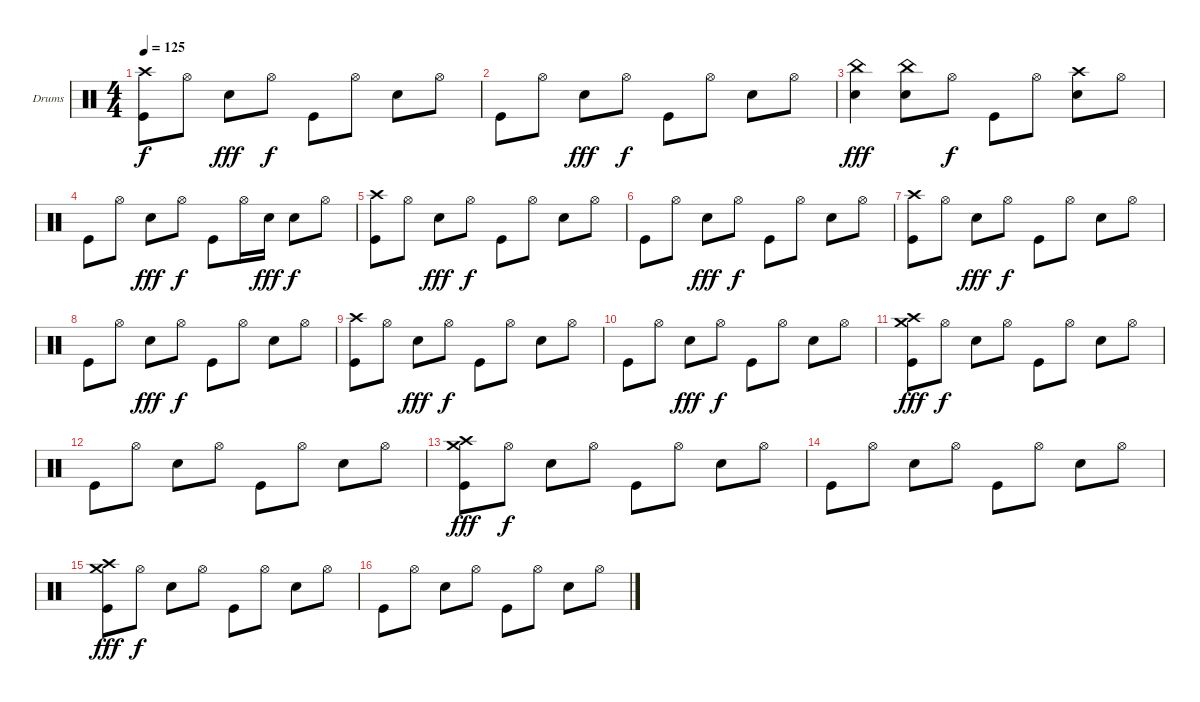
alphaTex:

\bracketExtendMode groupsimilarinstruments
\firstSystemTrackNameOrientation horizontal
\otherSystemsTrackNameOrientation horizontal
\track ("Drumkit" "Drums") {instrument percussion}
\staff {score}
\articulation defaults
\ts (4 4)
\tempo 125
\clef neutral
\ks c
("Crash high (hit)" "Kick (hit)").8{dy f} "Hi-Hat (open)".8 "Snare (hit) 2".8{dy fff} "Hi-Hat (open)".8{dy f} "Kick (hit)".8 "Hi-Hat (open)".8 "Snare (hit) 2".8 "Hi-Hat (open)".8 |
"Kick (hit)".8 "Hi-Hat (open)".8 "Snare (hit) 2".8{dy fff} "Hi-Hat (open)".8{dy f} "Kick (hit)".8 "Hi-Hat (open)".8 "Snare (hit) 2".8 "Hi-Hat (open)".8 |
("China (hit)" "Snare (hit) 2").4{dy fff} ("China (hit)" "Snare (hit) 2").8 "Hi-Hat (open)".8{dy f} "Kick (hit)".8 "Hi-Hat (open)".8 ("Crash high (hit)" "Snare (hit) 2").8 "Hi-Hat (open)".8 |
"Kick (hit)".8 "Hi-Hat (open)".8 "Snare (hit) 2".8{dy fff} "Hi-Hat (open)".8{dy f} "Kick (hit)".8 "Hi-Hat (open)".16 "Snare (hit) 2".16{dy fff} "Snare (hit) 2".8{dy f} "Hi-Hat (open)".8 |
("Crash high (hit)" "Kick (hit)").8 "Hi-Hat (open)".8 "Snare (hit) 2".8{dy fff} "Hi-Hat (open)".8{dy f} "Kick (hit)".8 "Hi-Hat (open)".8 "Snare (hit) 2".8 "Hi-Hat (open)".8 |
"Kick (hit)".8 "Hi-Hat (open)".8 "Snare (hit) 2".8{dy fff} "Hi-Hat (open)".8{dy f} "Kick (hit)".8 "Hi-Hat (open)".8 "Snare (hit) 2".8 "Hi-Hat (open)".8 |
("Crash high (hit)" "Kick (hit)").8 "Hi-Hat (open)".8 "Snare (hit) 2".8{dy fff} "Hi-Hat (open)".8{dy f} "Kick (hit)".8 "Hi-Hat (open)".8 "Snare (hit) 2".8 "Hi-Hat (open)".8 |
"Kick (hit)".8 "Hi-Hat (open)".8 "Snare (hit) 2".8{dy fff} "Hi-Hat (open)".8{dy f} "Kick (hit)".8 "Hi-Hat (open)".8 "Snare (hit) 2".8 "Hi-Hat (open)".8 |
("Crash high (hit)" "Kick (hit)").8 "Hi-Hat (open)".8 "Snare (hit) 2".8{dy fff} "Hi-Hat (open)".8{dy f} "Kick (hit)".8 "Hi-Hat (open)".8 "Snare (hit) 2".8 "Hi-Hat (open)".8 |
"Kick (hit)".8 "Hi-Hat (open)".8 "Snare (hit) 2".8{dy fff} "Hi-Hat (open)".8{dy f} "Kick (hit)".8 "Hi-Hat (open)".8 "Snare (hit) 2".8 "Hi-Hat (open)".8 |
("Crash high (hit)" "Crash medium (hit)" "Kick (hit)").8{dy fff} "Hi-Hat (open)".8{dy f} "Snare (hit) 2".8 "Hi-Hat (open)".8 "Kick (hit)".8 "Hi-Hat (open)".8 "Snare (hit) 2".8 "Hi-Hat (open)".8 |
"Kick (hit)".8 "Hi-Hat (open)".8 "Snare (hit) 2".8 "Hi-Hat (open)".8 "Kick (hit)".8 "Hi-Hat (open)".8 "Snare (hit) 2".8 "Hi-Hat (open)".8 |
("Crash high (hit)" "Crash medium (hit)" "Kick (hit)").8{dy fff} "Hi-Hat (open)".8{dy f} "Snare (hit) 2".8 "Hi-Hat (open)".8 "Kick (hit)".8 "Hi-Hat (open)".8 "Snare (hit) 2".8 "Hi-Hat (open)".8 |
"Kick (hit)".8 "Hi-Hat (open)".8 "Snare (hit) 2".8 "Hi-Hat (open)".8 "Kick (hit)".8 "Hi-Hat (open)".8 "Snare (hit) 2".8 "Hi-Hat (open)".8 |
("Crash high (hit)" "Crash medium (hit)" "Kick (hit)").8{dy fff} "Hi-Hat (open)".8{dy f} "Snare (hit) 2".8 "Hi-Hat (open)".8 "Kick (hit)".8 "Hi-Hat (open)".8 "Snare (hit) 2".8 "Hi-Hat (open)".8 |
"Kick (hit)".8 "Hi-Hat (open)".8 "Snare (hit) 2".8 "Hi-Hat (open)".8 "Kick (hit)".8 "Hi-Hat (open)".8 "Snare (hit) 2".8 "Hi-Hat (open)".8
